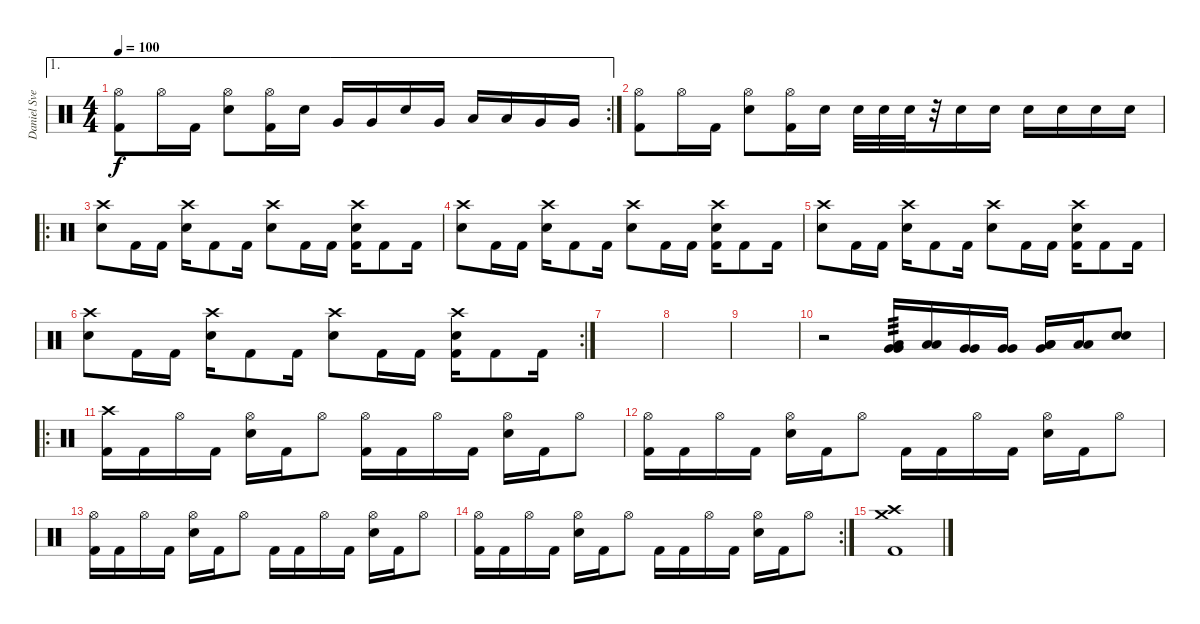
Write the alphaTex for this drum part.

\track ("Daniel Svensson" "Daniel Sve") {instrument percussion}
\staff {score}
\articulation defaults
\ae 1
\rc 2
\ts (4 4)
\tempo 100
\clef neutral
\ks c
("Hi-Hat (open)" "Kick (hit) 2").8{dy f} "Hi-Hat (open)".16 "Kick (hit) 2".16 ("Hi-Hat (open)" "Snare (hit) 2").8 ("Hi-Hat (open)" "Kick (hit) 2").16 "Snare (hit) 2".16 "Very Low Tom (hit)".16 "Very Low Tom (hit)".16 "Snare (hit) 2".16 "Very Low Tom (hit)".16 "Low Floor Tom (hit)".16 "Low Floor Tom (hit)".16 "Very Low Tom (hit)".16 "Very Low Tom (hit)".16 |
("Hi-Hat (open)" "Kick (hit) 2").8 "Hi-Hat (open)".16 "Kick (hit) 2".16 ("Hi-Hat (open)" "Snare (hit) 2").8 ("Hi-Hat (open)" "Kick (hit) 2").16 "Snare (hit) 2".16 "Snare (hit) 2".32 "Snare (hit) 2".32 "Snare (hit) 2".32 r.32 "Snare (hit) 2".16 "Snare (hit) 2".16 "Snare (hit) 2".16 "Snare (hit) 2".16 "Snare (hit) 2".16 "Snare (hit) 2".16 |
\ro
("Crash high (hit)" "Snare (hit) 2").8 "Kick (hit) 2".16 "Kick (hit) 2".16 ("Crash high (hit)" "Snare (hit) 2").16 "Kick (hit) 2".8 "Kick (hit) 2".16 ("Crash high (hit)" "Snare (hit) 2").8 "Kick (hit) 2".16 "Kick (hit) 2".16 ("Crash high (hit)" "Snare (hit) 2" "Kick (hit) 2").16 "Kick (hit) 2".8 "Kick (hit) 2".16 |
("Crash high (hit)" "Snare (hit) 2").8 "Kick (hit) 2".16 "Kick (hit) 2".16 ("Crash high (hit)" "Snare (hit) 2").16 "Kick (hit) 2".8 "Kick (hit) 2".16 ("Crash high (hit)" "Snare (hit) 2").8 "Kick (hit) 2".16 "Kick (hit) 2".16 ("Crash high (hit)" "Snare (hit) 2" "Kick (hit) 2").16 "Kick (hit) 2".8 "Kick (hit) 2".16 |
("Crash high (hit)" "Snare (hit) 2").8 "Kick (hit) 2".16 "Kick (hit) 2".16 ("Crash high (hit)" "Snare (hit) 2").16 "Kick (hit) 2".8 "Kick (hit) 2".16 ("Crash high (hit)" "Snare (hit) 2").8 "Kick (hit) 2".16 "Kick (hit) 2".16 ("Crash high (hit)" "Snare (hit) 2" "Kick (hit) 2").16 "Kick (hit) 2".8 "Kick (hit) 2".16 |
\rc 2
("Crash high (hit)" "Snare (hit) 2").8 "Kick (hit) 2".16 "Kick (hit) 2".16 ("Crash high (hit)" "Snare (hit) 2").16 "Kick (hit) 2".8 "Kick (hit) 2".16 ("Crash high (hit)" "Snare (hit) 2").8 "Kick (hit) 2".16 "Kick (hit) 2".16 ("Crash high (hit)" "Snare (hit) 2" "Kick (hit) 2").16 "Kick (hit) 2".8 "Kick (hit) 2".16 |
|
|
|
r.2 ("Very Low Tom (hit)" "Very Low Tom (hit)" "Low Tom (hit)").16{tp 3} ("Low Tom (hit)" "Low Tom (hit)").16 ("Very Low Tom (hit)" "Very Low Tom (hit)").16 ("Very Low Tom (hit)" "Very Low Tom (hit)").16 ("Low Tom (hit)" "Low Tom (hit)" "Very Low Tom (hit)").16 ("Low Floor Tom (hit)" "Low Floor Tom (hit)").16 ("Electric Snare (hit)" "Snare (hit) 2").8 |
\ro
("Crash high (hit)" "Kick (hit) 2").16 "Kick (hit) 2".16 "Hi-Hat (open)".16 "Kick (hit) 2".16 ("Hi-Hat (open)" "Snare (hit) 2").16 "Kick (hit) 2".16 "Hi-Hat (open)".8 ("Hi-Hat (open)" "Kick (hit) 2").16 "Kick (hit) 2".16 "Hi-Hat (open)".16 "Kick (hit) 2".16 ("Hi-Hat (open)" "Snare (hit) 2").16 "Kick (hit) 2".16 "Hi-Hat (open)".8 |
("Hi-Hat (open)" "Kick (hit) 2").16 "Kick (hit) 2".16 "Hi-Hat (open)".16 "Kick (hit) 2".16 ("Hi-Hat (open)" "Snare (hit) 2").16 "Kick (hit) 2".16 "Hi-Hat (open)".8 "Kick (hit) 2".16 "Kick (hit) 2".16 "Hi-Hat (open)".16 "Kick (hit) 2".16 ("Hi-Hat (open)" "Snare (hit) 2").16 "Kick (hit) 2".16 "Hi-Hat (open)".8 |
("Hi-Hat (open)" "Kick (hit) 2").16 "Kick (hit) 2".16 "Hi-Hat (open)".16 "Kick (hit) 2".16 ("Hi-Hat (open)" "Snare (hit) 2").16 "Kick (hit) 2".16 "Hi-Hat (open)".8 "Kick (hit) 2".16 "Kick (hit) 2".16 "Hi-Hat (open)".16 "Kick (hit) 2".16 ("Hi-Hat (open)" "Snare (hit) 2").16 "Kick (hit) 2".16 "Hi-Hat (open)".8 |
\rc 2
("Hi-Hat (open)" "Kick (hit) 2").16 "Kick (hit) 2".16 "Hi-Hat (open)".16 "Kick (hit) 2".16 ("Hi-Hat (open)" "Snare (hit) 2").16 "Kick (hit) 2".16 "Hi-Hat (open)".8 "Kick (hit) 2".16 "Kick (hit) 2".16 "Hi-Hat (open)".16 "Kick (hit) 2".16 ("Hi-Hat (open)" "Snare (hit) 2").16 "Kick (hit) 2".16 "Hi-Hat (open)".8 |
("Crash high (hit)" "Crash medium (hit)" "Kick (hit) 2").1
